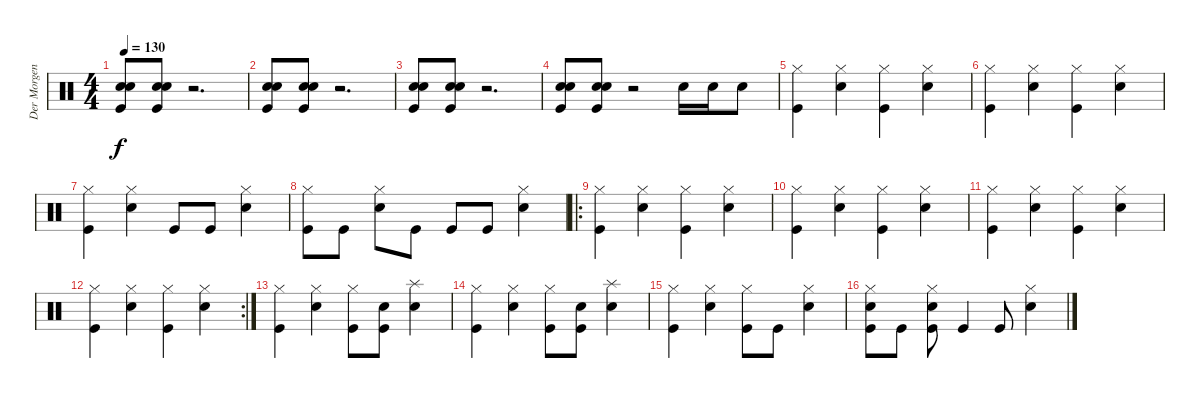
\track ("Der Morgenstern" "Der Morgen") {instrument percussion}
\staff {score}
\articulation defaults
\ts (4 4)
\tempo 130
\clef neutral
\ks c
("Snare (hit) 2" "Snare (hit) 2" "Kick (hit)").8{dy f} ("Snare (hit) 2" "Snare (hit) 2" "Kick (hit)").8 r.2{d} |
("Snare (hit) 2" "Snare (hit) 2" "Kick (hit)").8 ("Snare (hit) 2" "Snare (hit) 2" "Kick (hit)").8 r.2{d} |
("Snare (hit) 2" "Snare (hit) 2" "Kick (hit)").8 ("Snare (hit) 2" "Snare (hit) 2" "Kick (hit)").8 r.2{d} |
("Snare (hit) 2" "Snare (hit) 2" "Kick (hit)").8 ("Snare (hit) 2" "Snare (hit) 2" "Kick (hit)").8 r.2 "Snare (hit) 2".16 "Snare (hit) 2".16 "Snare (hit) 2".8 |
("Hi-Hat (closed)" "Kick (hit)").4 ("Hi-Hat (closed)" "Snare (hit) 2").4 ("Hi-Hat (closed)" "Kick (hit)").4 ("Hi-Hat (closed)" "Snare (hit) 2").4 |
("Hi-Hat (closed)" "Kick (hit)").4 ("Hi-Hat (closed)" "Snare (hit) 2").4 ("Hi-Hat (closed)" "Kick (hit)").4 ("Hi-Hat (closed)" "Snare (hit) 2").4 |
("Hi-Hat (closed)" "Kick (hit)").4 ("Hi-Hat (closed)" "Snare (hit) 2").4 "Kick (hit)".8 "Kick (hit)".8 ("Hi-Hat (closed)" "Snare (hit) 2").4 |
("Hi-Hat (closed)" "Kick (hit)").8 "Kick (hit)".8 ("Hi-Hat (closed)" "Snare (hit) 2").8 "Kick (hit)".8 "Kick (hit)".8 "Kick (hit)".8 ("Hi-Hat (closed)" "Snare (hit) 2").4 |
\ro
("Hi-Hat (closed)" "Kick (hit)").4 ("Hi-Hat (closed)" "Snare (hit) 2").4 ("Hi-Hat (closed)" "Kick (hit)").4 ("Hi-Hat (closed)" "Snare (hit) 2").4 |
("Hi-Hat (closed)" "Kick (hit)").4 ("Hi-Hat (closed)" "Snare (hit) 2").4 ("Hi-Hat (closed)" "Kick (hit)").4 ("Hi-Hat (closed)" "Snare (hit) 2").4 |
("Hi-Hat (closed)" "Kick (hit)").4 ("Hi-Hat (closed)" "Snare (hit) 2").4 ("Hi-Hat (closed)" "Kick (hit)").4 ("Hi-Hat (closed)" "Snare (hit) 2").4 |
\rc 2
("Hi-Hat (closed)" "Kick (hit)").4 ("Hi-Hat (closed)" "Snare (hit) 2").4 ("Hi-Hat (closed)" "Kick (hit)").4 ("Hi-Hat (closed)" "Snare (hit) 2").4 |
("Hi-Hat (closed)" "Kick (hit)").4 ("Hi-Hat (closed)" "Snare (hit) 2").4 ("Hi-Hat (closed)" "Kick (hit)").8 ("Snare (hit) 2" "Kick (hit)").8 ("Splash (hit)" "Snare (hit) 2").4 |
("Hi-Hat (closed)" "Kick (hit)").4 ("Hi-Hat (closed)" "Snare (hit) 2").4 ("Hi-Hat (closed)" "Kick (hit)").8 ("Snare (hit) 2" "Kick (hit)").8 ("Splash (hit)" "Snare (hit) 2").4 |
("Hi-Hat (closed)" "Kick (hit)").4 ("Hi-Hat (closed)" "Snare (hit) 2").4 ("Hi-Hat (closed)" "Kick (hit)").8 "Kick (hit)".8 ("Hi-Hat (closed)" "Snare (hit) 2").4 |
("Hi-Hat (closed)" "Snare (hit) 2" "Kick (hit)").8 "Kick (hit)".8 ("Hi-Hat (closed)" "Snare (hit) 2" "Kick (hit)").8 "Kick (hit)".4 "Kick (hit)".8 ("Hi-Hat (closed)" "Snare (hit) 2").4
